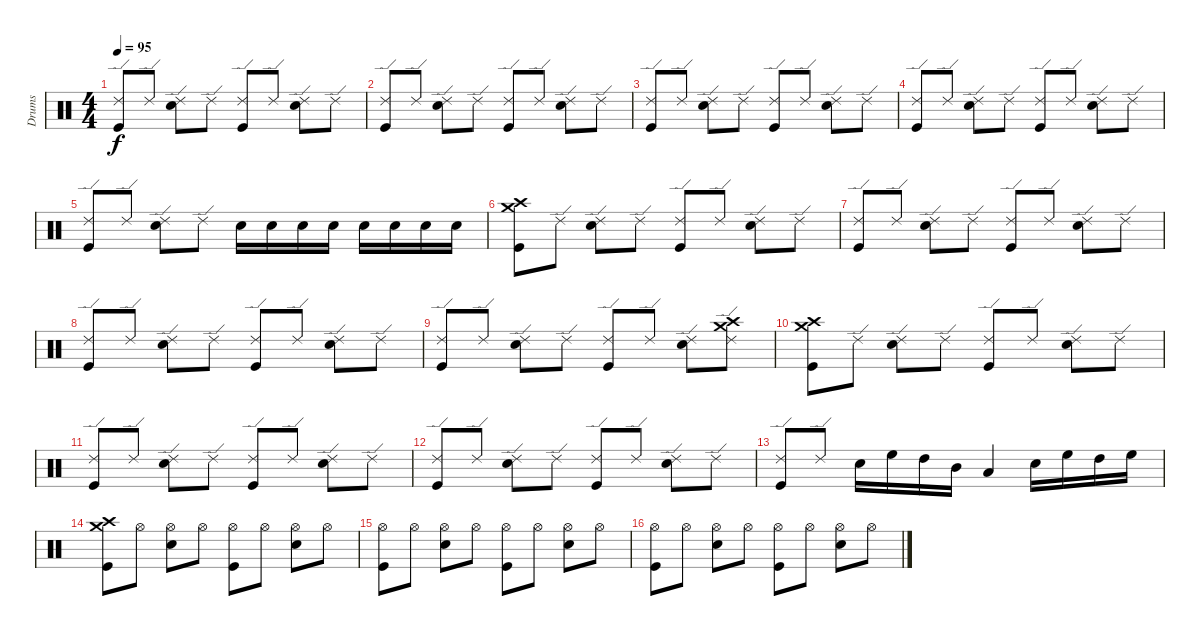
\track ("Drums" "Drums") {instrument percussion}
\staff {score}
\articulation defaults
\ts (4 4)
\tempo 95
\clef neutral
\ks c
("Ride (edge) 2" "Kick (hit)").8{dy f} "Ride (edge) 2".8 ("Ride (edge) 2" "Electric Snare (hit)").8 "Ride (edge) 2".8 ("Ride (edge) 2" "Kick (hit)").8 "Ride (edge) 2".8 ("Ride (edge) 2" "Electric Snare (hit)").8 "Ride (edge) 2".8 |
("Ride (edge) 2" "Kick (hit)").8 "Ride (edge) 2".8 ("Ride (edge) 2" "Electric Snare (hit)").8 "Ride (edge) 2".8 ("Ride (edge) 2" "Kick (hit)").8 "Ride (edge) 2".8 ("Ride (edge) 2" "Electric Snare (hit)").8 "Ride (edge) 2".8 |
("Ride (edge) 2" "Kick (hit)").8 "Ride (edge) 2".8 ("Ride (edge) 2" "Electric Snare (hit)").8 "Ride (edge) 2".8 ("Ride (edge) 2" "Kick (hit)").8 "Ride (edge) 2".8 ("Ride (edge) 2" "Electric Snare (hit)").8 "Ride (edge) 2".8 |
("Ride (edge) 2" "Kick (hit)").8 "Ride (edge) 2".8 ("Ride (edge) 2" "Electric Snare (hit)").8 "Ride (edge) 2".8 ("Ride (edge) 2" "Kick (hit)").8 "Ride (edge) 2".8 ("Ride (edge) 2" "Electric Snare (hit)").8 "Ride (edge) 2".8 |
("Ride (edge) 2" "Kick (hit)").8 "Ride (edge) 2".8 ("Ride (edge) 2" "Electric Snare (hit)").8 "Ride (edge) 2".8 "Snare (hit) 2".16 "Snare (hit) 2".16 "Snare (hit) 2".16 "Snare (hit) 2".16 "Snare (hit) 2".16 "Snare (hit) 2".16 "Snare (hit) 2".16 "Snare (hit) 2".16 |
("Crash medium (hit)" "Crash high (hit)" "Kick (hit)").8 "Ride (edge) 2".8 ("Ride (edge) 2" "Electric Snare (hit)").8 "Ride (edge) 2".8 ("Ride (edge) 2" "Kick (hit)").8 "Ride (edge) 2".8 ("Ride (edge) 2" "Electric Snare (hit)").8 "Ride (edge) 2".8 |
("Ride (edge) 2" "Kick (hit)").8 "Ride (edge) 2".8 ("Ride (edge) 2" "Electric Snare (hit)").8 "Ride (edge) 2".8 ("Ride (edge) 2" "Kick (hit)").8 "Ride (edge) 2".8 ("Ride (edge) 2" "Electric Snare (hit)").8 "Ride (edge) 2".8 |
("Ride (edge) 2" "Kick (hit)").8 "Ride (edge) 2".8 ("Ride (edge) 2" "Electric Snare (hit)").8 "Ride (edge) 2".8 ("Ride (edge) 2" "Kick (hit)").8 "Ride (edge) 2".8 ("Ride (edge) 2" "Electric Snare (hit)").8 "Ride (edge) 2".8 |
("Ride (edge) 2" "Kick (hit)").8 "Ride (edge) 2".8 ("Ride (edge) 2" "Electric Snare (hit)").8 "Ride (edge) 2".8 ("Ride (edge) 2" "Kick (hit)").8 "Ride (edge) 2".8 ("Ride (edge) 2" "Electric Snare (hit)").8 ("Ride (edge) 2" "Crash medium (hit)" "Crash high (hit)").8 |
("Crash high (hit)" "Crash medium (hit)" "Kick (hit)").8 "Ride (edge) 2".8 ("Ride (edge) 2" "Electric Snare (hit)").8 "Ride (edge) 2".8 ("Ride (edge) 2" "Kick (hit)").8 "Ride (edge) 2".8 ("Ride (edge) 2" "Electric Snare (hit)").8 "Ride (edge) 2".8 |
("Ride (edge) 2" "Kick (hit)").8 "Ride (edge) 2".8 ("Ride (edge) 2" "Electric Snare (hit)").8 "Ride (edge) 2".8 ("Ride (edge) 2" "Kick (hit)").8 "Ride (edge) 2".8 ("Ride (edge) 2" "Electric Snare (hit)").8 "Ride (edge) 2".8 |
("Ride (edge) 2" "Kick (hit)").8 "Ride (edge) 2".8 ("Ride (edge) 2" "Electric Snare (hit)").8 "Ride (edge) 2".8 ("Ride (edge) 2" "Kick (hit)").8 "Ride (edge) 2".8 ("Ride (edge) 2" "Electric Snare (hit)").8 "Ride (edge) 2".8 |
("Ride (edge) 2" "Kick (hit)").8 "Ride (edge) 2".8 "Snare (hit) 2".16 "High Floor Tom (hit)".16 "High Tom (hit)".16 "Mid Tom (hit)".16 "Low Tom (hit)".4 "Snare (hit) 2".16 "High Floor Tom (hit)".16 "High Tom (hit)".16 "High Floor Tom (hit)".16 |
("Crash medium (hit)" "Crash high (hit)" "Kick (hit)").8 "Hi-Hat (open)".8 ("Hi-Hat (open)" "Electric Snare (hit)").8 "Hi-Hat (open)".8 ("Hi-Hat (open)" "Kick (hit)").8 "Hi-Hat (open)".8 ("Hi-Hat (open)" "Electric Snare (hit)").8 "Hi-Hat (open)".8 |
("Hi-Hat (open)" "Kick (hit)").8 "Hi-Hat (open)".8 ("Hi-Hat (open)" "Electric Snare (hit)").8 "Hi-Hat (open)".8 ("Hi-Hat (open)" "Kick (hit)").8 "Hi-Hat (open)".8 ("Hi-Hat (open)" "Electric Snare (hit)").8 "Hi-Hat (open)".8 |
("Hi-Hat (open)" "Kick (hit)").8 "Hi-Hat (open)".8 ("Hi-Hat (open)" "Electric Snare (hit)").8 "Hi-Hat (open)".8 ("Hi-Hat (open)" "Kick (hit)").8 "Hi-Hat (open)".8 ("Hi-Hat (open)" "Electric Snare (hit)").8 "Hi-Hat (open)".8
